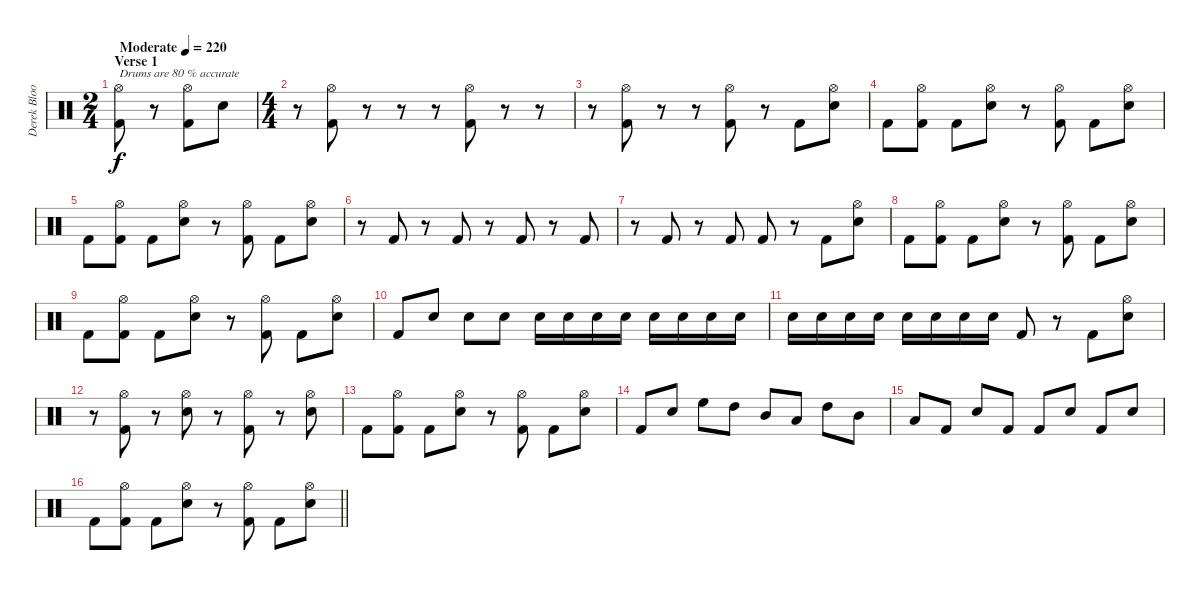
\track ("Derek Bloom - Drums" "Derek Bloo") {instrument percussion}
\staff {score}
\articulation defaults
\ts (2 4)
\section ("" "Verse 1")
\tempo (220 "Moderate")
\clef neutral
\ks c
("Hi-Hat (open)" "Kick (hit) 2").8{txt "Drums are 80 % accurate" dy f} r.8 ("Hi-Hat (open)" "Kick (hit) 2").8 "Electric Snare (hit)".8 |
\ts (4 4)
r.8 ("Hi-Hat (open)" "Kick (hit) 2").8 r.8 r.8 r.8 ("Hi-Hat (open)" "Kick (hit) 2").8 r.8 r.8 |
r.8 ("Hi-Hat (open)" "Kick (hit) 2").8 r.8 r.8 ("Hi-Hat (open)" "Kick (hit) 2").8 r.8 "Kick (hit) 2".8 ("Hi-Hat (open)" "Electric Snare (hit)").8 |
"Kick (hit) 2".8 ("Hi-Hat (open)" "Kick (hit) 2").8 "Kick (hit) 2".8 ("Hi-Hat (open)" "Electric Snare (hit)").8 r.8 ("Hi-Hat (open)" "Kick (hit) 2").8 "Kick (hit) 2".8 ("Hi-Hat (open)" "Electric Snare (hit)").8 |
"Kick (hit) 2".8 ("Hi-Hat (open)" "Kick (hit) 2").8 "Kick (hit) 2".8 ("Hi-Hat (open)" "Electric Snare (hit)").8 r.8 ("Hi-Hat (open)" "Kick (hit) 2").8 "Kick (hit) 2".8 ("Hi-Hat (open)" "Electric Snare (hit)").8 |
r.8 "Kick (hit) 2".8 r.8 "Kick (hit) 2".8 r.8 "Kick (hit) 2".8 r.8 "Kick (hit) 2".8 |
r.8 "Kick (hit) 2".8 r.8 "Kick (hit) 2".8 "Kick (hit) 2".8 r.8 "Kick (hit) 2".8 ("Hi-Hat (open)" "Electric Snare (hit)").8 |
"Kick (hit) 2".8 ("Hi-Hat (open)" "Kick (hit) 2").8 "Kick (hit) 2".8 ("Hi-Hat (open)" "Electric Snare (hit)").8 r.8 ("Hi-Hat (open)" "Kick (hit) 2").8 "Kick (hit) 2".8 ("Hi-Hat (open)" "Electric Snare (hit)").8 |
"Kick (hit) 2".8 ("Hi-Hat (open)" "Kick (hit) 2").8 "Kick (hit) 2".8 ("Hi-Hat (open)" "Electric Snare (hit)").8 r.8 ("Hi-Hat (open)" "Kick (hit) 2").8 "Kick (hit) 2".8 ("Hi-Hat (open)" "Electric Snare (hit)").8 |
"Kick (hit) 2".8 "Electric Snare (hit)".8 "Electric Snare (hit)".8 "Electric Snare (hit)".8 "Electric Snare (hit)".16 "Electric Snare (hit)".16 "Electric Snare (hit)".16 "Electric Snare (hit)".16 "Electric Snare (hit)".16 "Electric Snare (hit)".16 "Electric Snare (hit)".16 "Electric Snare (hit)".16 |
"Electric Snare (hit)".16 "Electric Snare (hit)".16 "Electric Snare (hit)".16 "Electric Snare (hit)".16 "Electric Snare (hit)".16 "Electric Snare (hit)".16 "Electric Snare (hit)".16 "Electric Snare (hit)".16 "Kick (hit) 2".8 r.8 "Kick (hit) 2".8 ("Hi-Hat (open)" "Electric Snare (hit)").8 |
r.8 ("Hi-Hat (open)" "Kick (hit) 2").8 r.8 ("Hi-Hat (open)" "Electric Snare (hit)").8 r.8 ("Hi-Hat (open)" "Kick (hit) 2").8 r.8 ("Hi-Hat (open)" "Electric Snare (hit)").8 |
"Kick (hit) 2".8 ("Hi-Hat (open)" "Kick (hit) 2").8 "Kick (hit) 2".8 ("Hi-Hat (open)" "Electric Snare (hit)").8 r.8 ("Hi-Hat (open)" "Kick (hit) 2").8 "Kick (hit) 2".8 ("Hi-Hat (open)" "Electric Snare (hit)").8 |
"Kick (hit) 2".8 "Electric Snare (hit)".8 "High Floor Tom (hit)".8 "High Tom (hit)".8 "Mid Tom (hit)".8 "Low Tom (hit)".8 "High Tom (hit)".8 "Mid Tom (hit)".8 |
"Low Tom (hit)".8 "Kick (hit) 2".8 "Electric Snare (hit)".8 "Kick (hit) 2".8 "Kick (hit) 2".8 "Electric Snare (hit)".8 "Kick (hit) 2".8 "Electric Snare (hit)".8 |
\barLineRight lightlight "Kick (hit) 2".8
("Hi-Hat (open)" "Kick (hit) 2").8 "Kick (hit) 2".8 ("Hi-Hat (open)" "Electric Snare (hit)").8 r.8 ("Hi-Hat (open)" "Kick (hit) 2").8 "Kick (hit) 2".8 ("Hi-Hat (open)" "Electric Snare (hit)").8
